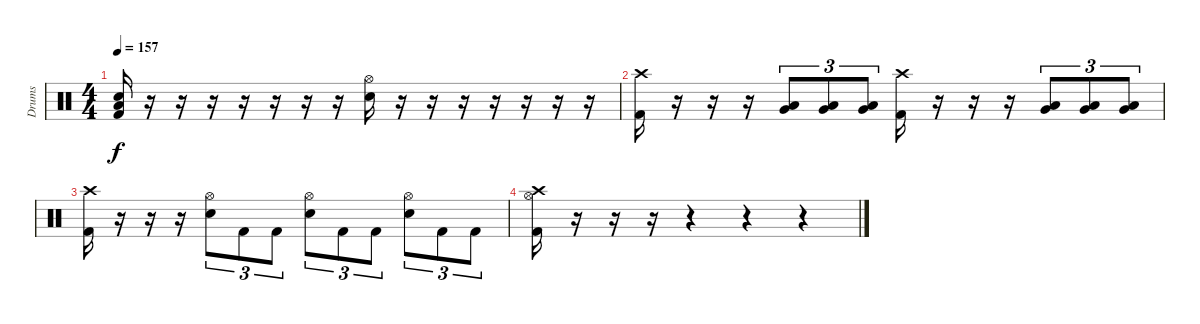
\track ("Drums" "Drums") {instrument percussion}
\staff {score}
\articulation defaults
\ts (4 4)
\tempo 157
\clef neutral
\ks c
("Low Tom (hit)" "Snare (hit) 2" "Kick (hit) 2").16{dy f} r.16 r.16 r.16 r.16 r.16 r.16 r.16 ("Hi-Hat (open)" "Snare (hit) 2").16 r.16 r.16 r.16 r.16 r.16 r.16 r.16 |
("Crash high (hit)" "Kick (hit) 2").16 r.16 r.16 r.16 ("Very Low Tom (hit)" "Low Tom (hit)").8{tu (3 2)} ("Very Low Tom (hit)" "Low Tom (hit)").8{tu (3 2)} ("Very Low Tom (hit)" "Low Tom (hit)").8{tu (3 2)} ("Crash high (hit)" "Kick (hit) 2").16 r.16 r.16 r.16 ("Very Low Tom (hit)" "Low Tom (hit)").8{tu (3 2)} ("Very Low Tom (hit)" "Low Tom (hit)").8{tu (3 2)} ("Very Low Tom (hit)" "Low Tom (hit)").8{tu (3 2)} |
("Crash high (hit)" "Kick (hit) 2").16 r.16 r.16 r.16 ("Hi-Hat (open)" "Snare (hit) 2").8{tu (3 2)} "Kick (hit) 2".8{tu (3 2)} "Kick (hit) 2".8{tu (3 2)} ("Hi-Hat (open)" "Snare (hit) 2").8{tu (3 2)} "Kick (hit) 2".8{tu (3 2)} "Kick (hit) 2".8{tu (3 2)} ("Hi-Hat (open)" "Snare (hit) 2").8{tu (3 2)} "Kick (hit) 2".8{tu (3 2)} "Kick (hit) 2".8{tu (3 2)} |
("Crash high (hit)" "Hi-Hat (open)" "Kick (hit) 2").16 r.16 r.16 r.16 r.4 r.4 r.4
